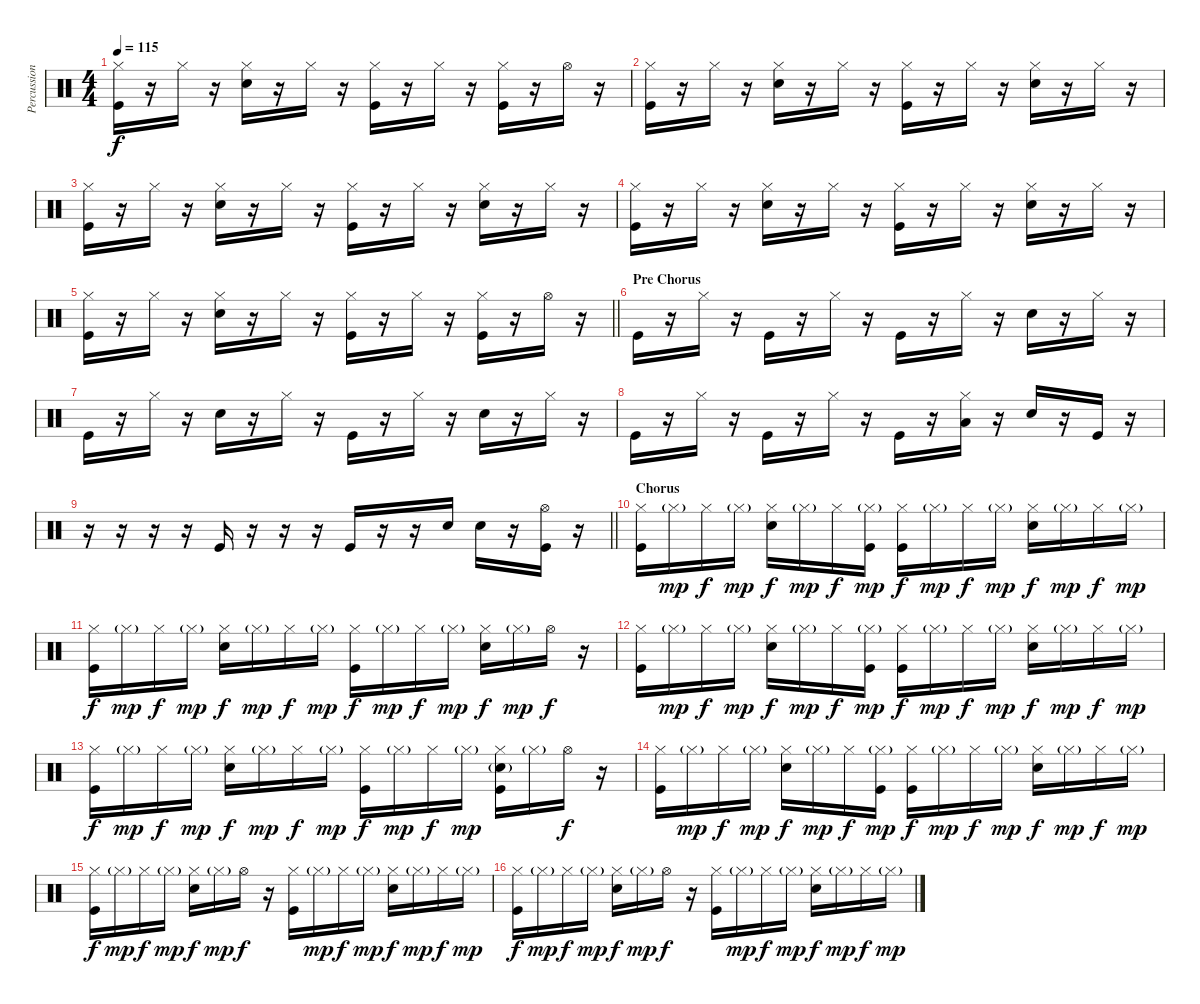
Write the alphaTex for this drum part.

\track ("Percussion" "Percussion") {instrument percussion bank 177}
\staff {score}
\articulation defaults
\ts (4 4)
\tempo 115
\clef neutral
\ks c
("Hi-Hat (closed)" "Kick (hit)").16{dy f} r.16 "Hi-Hat (closed)".16 r.16 ("Hi-Hat (closed)" "Snare (hit) 2").16 r.16 "Hi-Hat (closed)".16 r.16 ("Hi-Hat (closed)" "Kick (hit)").16 r.16 "Hi-Hat (closed)".16 r.16 ("Hi-Hat (closed)" "Kick (hit)").16 r.16 "Hi-Hat (open)".16 r.16 |
("Hi-Hat (closed)" "Kick (hit)").16 r.16 "Hi-Hat (closed)".16 r.16 ("Hi-Hat (closed)" "Snare (hit) 2").16 r.16 "Hi-Hat (closed)".16 r.16 ("Hi-Hat (closed)" "Kick (hit)").16 r.16 "Hi-Hat (closed)".16 r.16 ("Hi-Hat (closed)" "Snare (hit) 2").16 r.16 "Hi-Hat (closed)".16 r.16 |
("Hi-Hat (closed)" "Kick (hit)").16 r.16 "Hi-Hat (closed)".16 r.16 ("Hi-Hat (closed)" "Snare (hit) 2").16 r.16 "Hi-Hat (closed)".16 r.16 ("Hi-Hat (closed)" "Kick (hit)").16 r.16 "Hi-Hat (closed)".16 r.16 ("Hi-Hat (closed)" "Snare (hit) 2").16 r.16 "Hi-Hat (closed)".16 r.16 |
("Hi-Hat (closed)" "Kick (hit)").16 r.16 "Hi-Hat (closed)".16 r.16 ("Hi-Hat (closed)" "Snare (hit) 2").16 r.16 "Hi-Hat (closed)".16 r.16 ("Hi-Hat (closed)" "Kick (hit)").16 r.16 "Hi-Hat (closed)".16 r.16 ("Hi-Hat (closed)" "Snare (hit) 2").16 r.16 "Hi-Hat (closed)".16 r.16 |
\barLineRight lightlight
("Hi-Hat (closed)" "Kick (hit)").16 r.16 "Hi-Hat (closed)".16 r.16 ("Hi-Hat (closed)" "Snare (hit) 2").16 r.16 "Hi-Hat (closed)".16 r.16 ("Hi-Hat (closed)" "Kick (hit)").16 r.16 "Hi-Hat (closed)".16 r.16 ("Hi-Hat (closed)" "Kick (hit)").16 r.16 "Hi-Hat (open)".16 r.16 |
\section ("" "Pre Chorus")
"Kick (hit)".16 r.16 "Hi-Hat (closed)".16 r.16 "Kick (hit)".16 r.16 "Hi-Hat (closed)".16 r.16 "Kick (hit)".16 r.16 "Hi-Hat (closed)".16 r.16 "Snare (hit) 2".16 r.16 "Hi-Hat (closed)".16 r.16 |
"Kick (hit)".16 r.16 "Hi-Hat (closed)".16 r.16 "Snare (hit) 2".16 r.16 "Hi-Hat (closed)".16 r.16 "Kick (hit)".16 r.16 "Hi-Hat (closed)".16 r.16 "Snare (hit) 2".16 r.16 "Hi-Hat (closed)".16 r.16 |
"Kick (hit)".16 r.16 "Hi-Hat (closed)".16 r.16 "Kick (hit)".16 r.16 "Hi-Hat (closed)".16 r.16 "Kick (hit)".16 r.16 ("Hi-Hat (closed)" "Low Tom (hit)").16 r.16 "Snare (hit) 2".16 r.16 "Kick (hit)".16 r.16 |
\barLineRight lightlight
r.16 r.16 r.16 r.16 "Kick (hit)".16 r.16 r.16 r.16 "Kick (hit)".16 r.16 r.16 "Snare (hit) 2".16 "Snare (hit) 2".16 r.16 ("Hi-Hat (open)" "Kick (hit)").16 r.16 |
\section ("" "Chorus")
("Hi-Hat (closed)" "Kick (hit)").16 "Hi-Hat (closed)"{g}.16{dy mp} "Hi-Hat (closed)".16{dy f} "Hi-Hat (closed)"{g}.16{dy mp} ("Hi-Hat (closed)" "Snare (hit) 2").16{dy f} "Hi-Hat (closed)"{g}.16{dy mp} "Hi-Hat (closed)".16{dy f} ("Hi-Hat (closed)"{g} "Kick (hit)").16{dy mp} ("Hi-Hat (closed)" "Kick (hit)").16{dy f} "Hi-Hat (closed)"{g}.16{dy mp} "Hi-Hat (closed)".16{dy f} "Hi-Hat (closed)"{g}.16{dy mp} ("Hi-Hat (closed)" "Snare (hit) 2").16{dy f} "Hi-Hat (closed)"{g}.16{dy mp} "Hi-Hat (closed)".16{dy f} "Hi-Hat (closed)"{g}.16{dy mp} |
("Hi-Hat (closed)" "Kick (hit)").16{dy f} "Hi-Hat (closed)"{g}.16{dy mp} "Hi-Hat (closed)".16{dy f} "Hi-Hat (closed)"{g}.16{dy mp} ("Hi-Hat (closed)" "Snare (hit) 2").16{dy f} "Hi-Hat (closed)"{g}.16{dy mp} "Hi-Hat (closed)".16{dy f} "Hi-Hat (closed)"{g}.16{dy mp} ("Hi-Hat (closed)" "Kick (hit)").16{dy f} "Hi-Hat (closed)"{g}.16{dy mp} "Hi-Hat (closed)".16{dy f} "Hi-Hat (closed)"{g}.16{dy mp} ("Hi-Hat (closed)" "Snare (hit) 2").16{dy f} "Hi-Hat (closed)"{g}.16{dy mp} "Hi-Hat (open)".16{dy f} r.16 |
("Hi-Hat (closed)" "Kick (hit)").16 "Hi-Hat (closed)"{g}.16{dy mp} "Hi-Hat (closed)".16{dy f} "Hi-Hat (closed)"{g}.16{dy mp} ("Hi-Hat (closed)" "Snare (hit) 2").16{dy f} "Hi-Hat (closed)"{g}.16{dy mp} "Hi-Hat (closed)".16{dy f} ("Hi-Hat (closed)"{g} "Kick (hit)").16{dy mp} ("Hi-Hat (closed)" "Kick (hit)").16{dy f} "Hi-Hat (closed)"{g}.16{dy mp} "Hi-Hat (closed)".16{dy f} "Hi-Hat (closed)"{g}.16{dy mp} ("Hi-Hat (closed)" "Snare (hit) 2").16{dy f} "Hi-Hat (closed)"{g}.16{dy mp} "Hi-Hat (closed)".16{dy f} "Hi-Hat (closed)"{g}.16{dy mp} |
("Hi-Hat (closed)" "Kick (hit)").16{dy f} "Hi-Hat (closed)"{g}.16{dy mp} "Hi-Hat (closed)".16{dy f} "Hi-Hat (closed)"{g}.16{dy mp} ("Hi-Hat (closed)" "Snare (hit) 2").16{dy f} "Hi-Hat (closed)"{g}.16{dy mp} "Hi-Hat (closed)".16{dy f} "Hi-Hat (closed)"{g}.16{dy mp} ("Hi-Hat (closed)" "Kick (hit)").16{dy f} "Hi-Hat (closed)"{g}.16{dy mp} "Hi-Hat (closed)".16{dy f} "Hi-Hat (closed)"{g}.16{dy mp} ("Hi-Hat (closed)" "Snare (hit) 2"{g} "Kick (hit)").16 "Hi-Hat (closed)"{g}.16 "Hi-Hat (open)".16{dy f} r.16 |
("Hi-Hat (closed)" "Kick (hit)").16 "Hi-Hat (closed)"{g}.16{dy mp} "Hi-Hat (closed)".16{dy f} "Hi-Hat (closed)"{g}.16{dy mp} ("Hi-Hat (closed)" "Snare (hit) 2").16{dy f} "Hi-Hat (closed)"{g}.16{dy mp} "Hi-Hat (closed)".16{dy f} ("Hi-Hat (closed)"{g} "Kick (hit)").16{dy mp} ("Hi-Hat (closed)" "Kick (hit)").16{dy f} "Hi-Hat (closed)"{g}.16{dy mp} "Hi-Hat (closed)".16{dy f} "Hi-Hat (closed)"{g}.16{dy mp} ("Hi-Hat (closed)" "Snare (hit) 2").16{dy f} "Hi-Hat (closed)"{g}.16{dy mp} "Hi-Hat (closed)".16{dy f} "Hi-Hat (closed)"{g}.16{dy mp} |
("Hi-Hat (closed)" "Kick (hit)").16{dy f} "Hi-Hat (closed)"{g}.16{dy mp} "Hi-Hat (closed)".16{dy f} "Hi-Hat (closed)"{g}.16{dy mp} ("Hi-Hat (closed)" "Snare (hit) 2").16{dy f} "Hi-Hat (closed)"{g}.16{dy mp} "Hi-Hat (open)".16{dy f} r.16 ("Hi-Hat (closed)" "Kick (hit)").16 "Hi-Hat (closed)"{g}.16{dy mp} "Hi-Hat (closed)".16{dy f} "Hi-Hat (closed)"{g}.16{dy mp} ("Hi-Hat (closed)" "Snare (hit) 2").16{dy f} "Hi-Hat (closed)"{g}.16{dy mp} "Hi-Hat (closed)".16{dy f} "Hi-Hat (closed)"{g}.16{dy mp} |
("Hi-Hat (closed)" "Kick (hit)").16{dy f} "Hi-Hat (closed)"{g}.16{dy mp} "Hi-Hat (closed)".16{dy f} "Hi-Hat (closed)"{g}.16{dy mp} ("Hi-Hat (closed)" "Snare (hit) 2").16{dy f} "Hi-Hat (closed)"{g}.16{dy mp} "Hi-Hat (open)".16{dy f} r.16 ("Hi-Hat (closed)" "Kick (hit)").16 "Hi-Hat (closed)"{g}.16{dy mp} "Hi-Hat (closed)".16{dy f} "Hi-Hat (closed)"{g}.16{dy mp} ("Hi-Hat (closed)" "Snare (hit) 2").16{dy f} "Hi-Hat (closed)"{g}.16{dy mp} "Hi-Hat (closed)".16{dy f} "Hi-Hat (closed)"{g}.16{dy mp}
